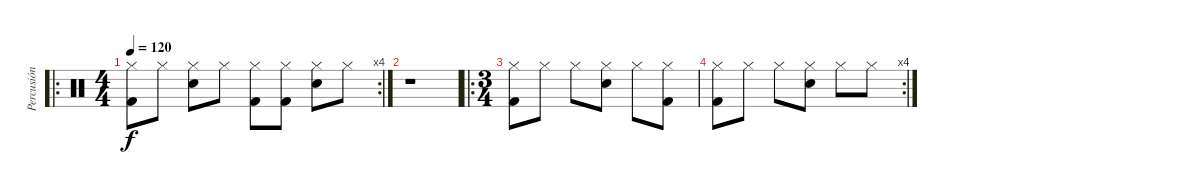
\track ("Percusión" "Percusión") {instrument percussion}
\staff {score}
\articulation defaults
\ro
\rc 4
\ts (4 4)
\tempo 120
\clef neutral
\ks c
("Hi-Hat (closed)" "Kick (hit) 2").8{dy f} "Hi-Hat (closed)".8 ("Hi-Hat (closed)" "Snare (hit) 2").8 "Hi-Hat (closed)".8 ("Hi-Hat (closed)" "Kick (hit) 2").8 ("Hi-Hat (closed)" "Kick (hit) 2").8 ("Hi-Hat (closed)" "Snare (hit) 2").8 "Hi-Hat (closed)".8 |
r.1 |
\ro
\ts (3 4)
("Hi-Hat (closed)" "Kick (hit) 2").8 "Hi-Hat (closed)".8 "Hi-Hat (closed)".8 ("Hi-Hat (closed)" "Snare (hit) 2").8 "Hi-Hat (closed)".8 ("Hi-Hat (closed)" "Kick (hit) 2").8 |
\rc 4
("Hi-Hat (closed)" "Kick (hit) 2").8 "Hi-Hat (closed)".8 "Hi-Hat (closed)".8 ("Hi-Hat (closed)" "Snare (hit) 2").8 "Hi-Hat (closed)".8 "Hi-Hat (closed)".8
